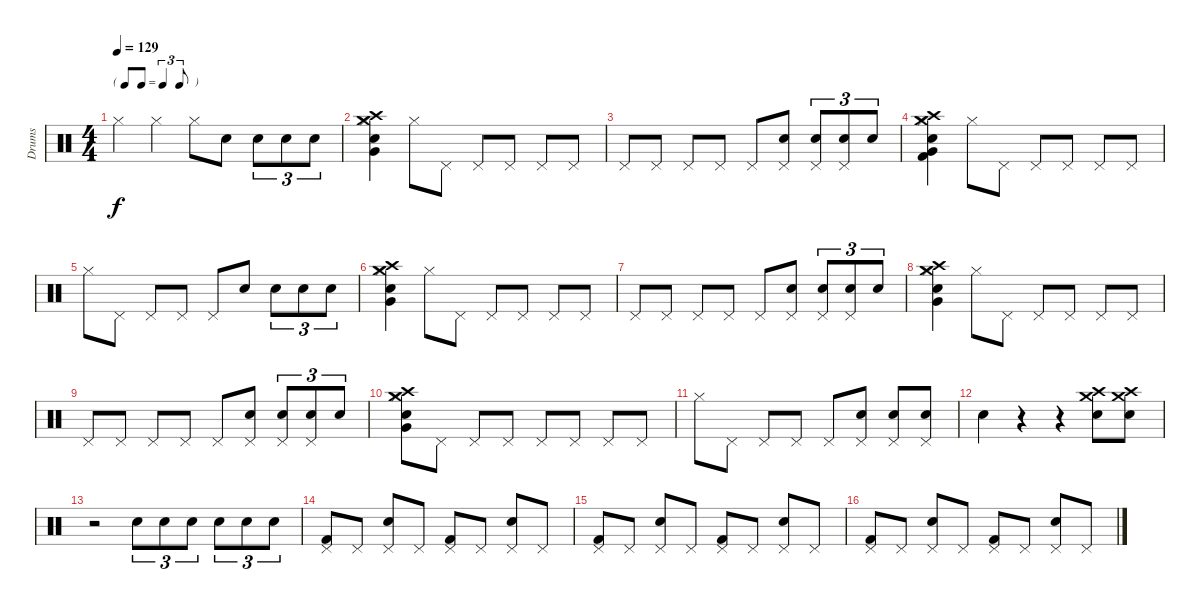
\track ("Drums" "Drums") {instrument percussion}
\staff {score}
\articulation defaults
\ts (4 4)
\tf triplet8th
\tempo 129
\clef neutral
\ks c "Hi-Hat (closed)".4{dy f} "Hi-Hat (closed)".4 "Hi-Hat (closed)".8 "Electric Snare (hit)".8 "Electric Snare (hit)".8{tu (3 2)} "Electric Snare (hit)".8{tu (3 2)} "Electric Snare (hit)".8{tu (3 2)}
|
("Very Low Tom (hit)" "Hi-Hat (closed)" "Crash high (hit)" "Crash medium (hit)" "Electric Snare (hit)").4 "Hi-Hat (closed)".8 "Pedal Hi-Hat (hit)".8 "Pedal Hi-Hat (hit)".8 "Pedal Hi-Hat (hit)".8 "Pedal Hi-Hat (hit)".8 "Pedal Hi-Hat (hit)".8 |
"Pedal Hi-Hat (hit)".8 "Pedal Hi-Hat (hit)".8 "Pedal Hi-Hat (hit)".8 "Pedal Hi-Hat (hit)".8 "Pedal Hi-Hat (hit)".8 ("Pedal Hi-Hat (hit)" "Electric Snare (hit)").8 ("Pedal Hi-Hat (hit)" "Electric Snare (hit)").8{tu (3 2)} ("Pedal Hi-Hat (hit)" "Electric Snare (hit)").8{tu (3 2)} "Electric Snare (hit)".8{tu (3 2)} |
("Very Low Tom (hit)" "Kick (hit) 2" "Crash medium (hit)" "Hi-Hat (closed)" "Crash high (hit)" "Electric Snare (hit)").4 "Hi-Hat (closed)".8 "Pedal Hi-Hat (hit)".8 "Pedal Hi-Hat (hit)".8 "Pedal Hi-Hat (hit)".8 "Pedal Hi-Hat (hit)".8 "Pedal Hi-Hat (hit)".8 |
"Hi-Hat (closed)".8 "Pedal Hi-Hat (hit)".8 "Pedal Hi-Hat (hit)".8 "Pedal Hi-Hat (hit)".8 "Pedal Hi-Hat (hit)".8 "Electric Snare (hit)".8 "Electric Snare (hit)".8{tu (3 2)} "Electric Snare (hit)".8{tu (3 2)} "Electric Snare (hit)".8{tu (3 2)} |
("Very Low Tom (hit)" "Hi-Hat (closed)" "Crash high (hit)" "Crash medium (hit)" "Electric Snare (hit)").4 "Hi-Hat (closed)".8 "Pedal Hi-Hat (hit)".8 "Pedal Hi-Hat (hit)".8 "Pedal Hi-Hat (hit)".8 "Pedal Hi-Hat (hit)".8 "Pedal Hi-Hat (hit)".8 |
"Pedal Hi-Hat (hit)".8 "Pedal Hi-Hat (hit)".8 "Pedal Hi-Hat (hit)".8 "Pedal Hi-Hat (hit)".8 "Pedal Hi-Hat (hit)".8 ("Pedal Hi-Hat (hit)" "Electric Snare (hit)").8 ("Pedal Hi-Hat (hit)" "Electric Snare (hit)").8{tu (3 2)} ("Pedal Hi-Hat (hit)" "Electric Snare (hit)").8{tu (3 2)} "Electric Snare (hit)".8{tu (3 2)} |
("Very Low Tom (hit)" "Hi-Hat (closed)" "Crash high (hit)" "Crash medium (hit)" "Electric Snare (hit)").4 "Hi-Hat (closed)".8 "Pedal Hi-Hat (hit)".8 "Pedal Hi-Hat (hit)".8 "Pedal Hi-Hat (hit)".8 "Pedal Hi-Hat (hit)".8 "Pedal Hi-Hat (hit)".8 |
"Pedal Hi-Hat (hit)".8 "Pedal Hi-Hat (hit)".8 "Pedal Hi-Hat (hit)".8 "Pedal Hi-Hat (hit)".8 "Pedal Hi-Hat (hit)".8 ("Pedal Hi-Hat (hit)" "Electric Snare (hit)").8 ("Pedal Hi-Hat (hit)" "Electric Snare (hit)").8{tu (3 2)} ("Pedal Hi-Hat (hit)" "Electric Snare (hit)").8{tu (3 2)} "Electric Snare (hit)".8{tu (3 2)} |
("Very Low Tom (hit)" "Crash high (hit)" "Hi-Hat (closed)" "Crash medium (hit)" "Electric Snare (hit)").8 "Pedal Hi-Hat (hit)".8 "Pedal Hi-Hat (hit)".8 "Pedal Hi-Hat (hit)".8 "Pedal Hi-Hat (hit)".8 "Pedal Hi-Hat (hit)".8 "Pedal Hi-Hat (hit)".8 "Pedal Hi-Hat (hit)".8 |
"Hi-Hat (closed)".8 "Pedal Hi-Hat (hit)".8 "Pedal Hi-Hat (hit)".8 "Pedal Hi-Hat (hit)".8 "Pedal Hi-Hat (hit)".8 ("Pedal Hi-Hat (hit)" "Electric Snare (hit)").8 ("Pedal Hi-Hat (hit)" "Electric Snare (hit)").8 ("Pedal Hi-Hat (hit)" "Electric Snare (hit)").8 |
"Electric Snare (hit)".4 r.4 r.4 ("Crash high (hit)" "Crash medium (hit)" "Electric Snare (hit)").8 ("Crash high (hit)" "Crash medium (hit)" "Electric Snare (hit)").8 |
r.2 "Electric Snare (hit)".8{tu (3 2)} "Electric Snare (hit)".8{tu (3 2)} "Electric Snare (hit)".8{tu (3 2)} "Electric Snare (hit)".8{tu (3 2)} "Electric Snare (hit)".8{tu (3 2)} "Electric Snare (hit)".8{tu (3 2)} |
("Pedal Hi-Hat (hit)" "Kick (hit) 2").8 "Pedal Hi-Hat (hit)".8 ("Pedal Hi-Hat (hit)" "Electric Snare (hit)").8 "Pedal Hi-Hat (hit)".8 ("Pedal Hi-Hat (hit)" "Kick (hit) 2").8 "Pedal Hi-Hat (hit)".8 ("Pedal Hi-Hat (hit)" "Electric Snare (hit)").8 "Pedal Hi-Hat (hit)".8 |
("Pedal Hi-Hat (hit)" "Kick (hit) 2").8 "Pedal Hi-Hat (hit)".8 ("Pedal Hi-Hat (hit)" "Electric Snare (hit)").8 "Pedal Hi-Hat (hit)".8 ("Pedal Hi-Hat (hit)" "Kick (hit) 2").8 "Pedal Hi-Hat (hit)".8 ("Pedal Hi-Hat (hit)" "Electric Snare (hit)").8 "Pedal Hi-Hat (hit)".8 |
("Pedal Hi-Hat (hit)" "Kick (hit) 2").8 "Pedal Hi-Hat (hit)".8 ("Pedal Hi-Hat (hit)" "Electric Snare (hit)").8 "Pedal Hi-Hat (hit)".8 ("Pedal Hi-Hat (hit)" "Kick (hit) 2").8 "Pedal Hi-Hat (hit)".8 ("Pedal Hi-Hat (hit)" "Electric Snare (hit)").8 "Pedal Hi-Hat (hit)".8
